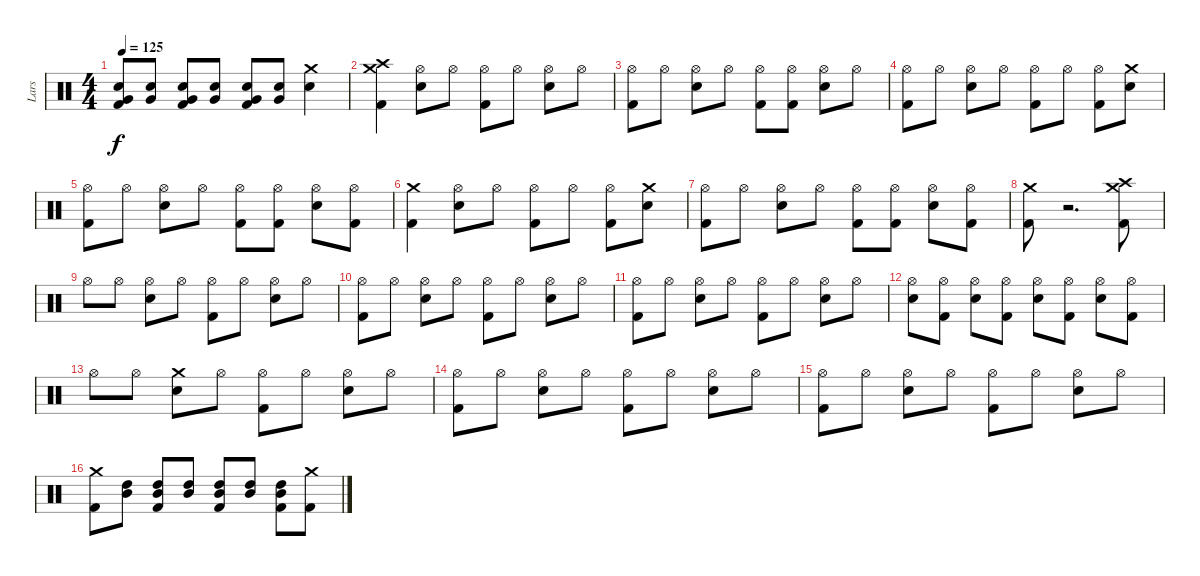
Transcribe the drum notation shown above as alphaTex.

\track ("Lars" "Lars") {instrument percussion}
\staff {score}
\articulation defaults
\ts (4 4)
\tempo 125
\clef neutral
\ks c
("Kick (hit) 2" "Snare (hit) 2" "Very Low Tom (hit)").8{dy f} ("Snare (hit) 2" "Very Low Tom (hit)").8 ("Kick (hit) 2" "Snare (hit) 2" "Very Low Tom (hit)").8 ("Snare (hit) 2" "Very Low Tom (hit)").8 ("Kick (hit) 2" "Snare (hit) 2" "Very Low Tom (hit)").8 ("Snare (hit) 2" "Very Low Tom (hit)").8 ("Crash medium (hit)" "Snare (hit) 2").4 |
("Kick (hit) 2" "Crash medium (hit)" "Crash high (hit)").4 ("Snare (hit) 2" "Hi-Hat (open)").8 "Hi-Hat (open)".8 ("Hi-Hat (open)" "Kick (hit) 2").8 "Hi-Hat (open)".8 ("Snare (hit) 2" "Hi-Hat (open)").8 "Hi-Hat (open)".8 |
("Hi-Hat (open)" "Kick (hit) 2").8 "Hi-Hat (open)".8 ("Snare (hit) 2" "Hi-Hat (open)").8 "Hi-Hat (open)".8 ("Kick (hit) 2" "Hi-Hat (open)").8 ("Kick (hit) 2" "Hi-Hat (open)").8 ("Snare (hit) 2" "Hi-Hat (open)").8 "Hi-Hat (open)".8 |
("Hi-Hat (open)" "Kick (hit) 2").8 "Hi-Hat (open)".8 ("Snare (hit) 2" "Hi-Hat (open)").8 "Hi-Hat (open)".8 ("Kick (hit) 2" "Hi-Hat (open)").8 "Hi-Hat (open)".8 ("Kick (hit) 2" "Hi-Hat (open)").8 ("Snare (hit) 2" "Crash medium (hit)").8 |
("Hi-Hat (open)" "Kick (hit) 2").8 "Hi-Hat (open)".8 ("Snare (hit) 2" "Hi-Hat (open)").8 "Hi-Hat (open)".8 ("Kick (hit) 2" "Hi-Hat (open)").8 ("Kick (hit) 2" "Hi-Hat (open)").8 ("Snare (hit) 2" "Hi-Hat (open)").8 ("Kick (hit) 2" "Hi-Hat (open)").8 |
("Kick (hit) 2" "Crash medium (hit)").4 ("Hi-Hat (open)" "Snare (hit) 2").8 "Hi-Hat (open)".8 ("Kick (hit) 2" "Hi-Hat (open)").8 "Hi-Hat (open)".8 ("Kick (hit) 2" "Hi-Hat (open)").8 ("Crash medium (hit)" "Snare (hit) 2").8 |
("Kick (hit) 2" "Hi-Hat (open)").8 "Hi-Hat (open)".8 ("Snare (hit) 2" "Hi-Hat (open)").8 "Hi-Hat (open)".8 ("Kick (hit) 2" "Hi-Hat (open)").8 ("Kick (hit) 2" "Hi-Hat (open)").8 ("Snare (hit) 2" "Hi-Hat (open)").8 ("Kick (hit) 2" "Hi-Hat (open)").8 |
("Kick (hit) 2" "Crash medium (hit)").8 r.2{d volume 0} ("Kick (hit) 2" "Crash medium (hit)" "Crash high (hit)").8{volume 14} |
"Hi-Hat (open)".8 "Hi-Hat (open)".8 ("Snare (hit) 2" "Hi-Hat (open)").8 "Hi-Hat (open)".8 ("Kick (hit) 2" "Hi-Hat (open)").8 "Hi-Hat (open)".8 ("Snare (hit) 2" "Hi-Hat (open)").8 "Hi-Hat (open)".8 |
("Kick (hit) 2" "Hi-Hat (open)").8 "Hi-Hat (open)".8 ("Snare (hit) 2" "Hi-Hat (open)").8 "Hi-Hat (open)".8 ("Kick (hit) 2" "Hi-Hat (open)").8 "Hi-Hat (open)".8 ("Snare (hit) 2" "Hi-Hat (open)").8 "Hi-Hat (open)".8 |
("Kick (hit) 2" "Hi-Hat (open)").8 "Hi-Hat (open)".8 ("Snare (hit) 2" "Hi-Hat (open)").8 "Hi-Hat (open)".8 ("Kick (hit) 2" "Hi-Hat (open)").8 "Hi-Hat (open)".8 ("Snare (hit) 2" "Hi-Hat (open)").8 "Hi-Hat (open)".8 |
("Snare (hit) 2" "Hi-Hat (open)").8 ("Hi-Hat (open)" "Kick (hit) 2").8 ("Snare (hit) 2" "Hi-Hat (open)").8 ("Hi-Hat (open)" "Kick (hit) 2").8 ("Snare (hit) 2" "Hi-Hat (open)").8 ("Hi-Hat (open)" "Kick (hit) 2").8 ("Snare (hit) 2" "Hi-Hat (open)").8 ("Kick (hit) 2" "Hi-Hat (open)").8 |
"Hi-Hat (open)".8 "Hi-Hat (open)".8 ("Snare (hit) 2" "Crash medium (hit)").8 "Hi-Hat (open)".8 ("Kick (hit) 2" "Hi-Hat (open)").8 "Hi-Hat (open)".8 ("Snare (hit) 2" "Hi-Hat (open)").8 "Hi-Hat (open)".8 |
("Kick (hit) 2" "Hi-Hat (open)").8 "Hi-Hat (open)".8 ("Snare (hit) 2" "Hi-Hat (open)").8 "Hi-Hat (open)".8 ("Kick (hit) 2" "Hi-Hat (open)").8 "Hi-Hat (open)".8 ("Snare (hit) 2" "Hi-Hat (open)").8 "Hi-Hat (open)".8 |
("Kick (hit) 2" "Hi-Hat (open)").8 "Hi-Hat (open)".8 ("Snare (hit) 2" "Hi-Hat (open)").8 "Hi-Hat (open)".8 ("Kick (hit) 2" "Hi-Hat (open)").8 "Hi-Hat (open)".8 ("Snare (hit) 2" "Hi-Hat (open)").8 "Hi-Hat (open)".8 |
("Kick (hit) 2" "Crash medium (hit)").8 ("High Tom (hit)" "Mid Tom (hit)").8 ("High Tom (hit)" "Mid Tom (hit)" "Kick (hit) 2").8 ("High Tom (hit)" "Mid Tom (hit)").8 ("High Tom (hit)" "Mid Tom (hit)" "Kick (hit) 2").8 ("High Tom (hit)" "Mid Tom (hit)").8 ("High Tom (hit)" "Mid Tom (hit)" "Kick (hit) 2").8 ("Kick (hit) 2" "Crash medium (hit)").8
